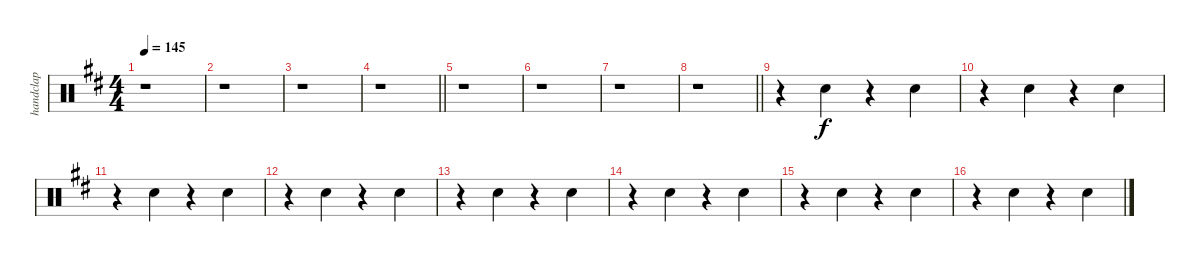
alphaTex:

\track ("handclap" "handclap") {instrument percussion}
\staff {score}
\articulation defaults
\ts (4 4)
\tempo 145
\clef neutral
\ks d
r.1{dy f} |
r.1 |
r.1 |
\barLineRight lightlight
r.1 |
r.1 |
r.1 |
r.1 |
\barLineRight lightlight
r.1 |
r.4 "Hand Clap (hit)".4 r.4 "Hand Clap (hit)".4 |
r.4 "Hand Clap (hit)".4 r.4 "Hand Clap (hit)".4 |
r.4 "Hand Clap (hit)".4 r.4 "Hand Clap (hit)".4 |
r.4 "Hand Clap (hit)".4 r.4 "Hand Clap (hit)".4 |
r.4 "Hand Clap (hit)".4 r.4 "Hand Clap (hit)".4 |
r.4 "Hand Clap (hit)".4 r.4 "Hand Clap (hit)".4 |
r.4 "Hand Clap (hit)".4 r.4 "Hand Clap (hit)".4 |
r.4 "Hand Clap (hit)".4 r.4 "Hand Clap (hit)".4
